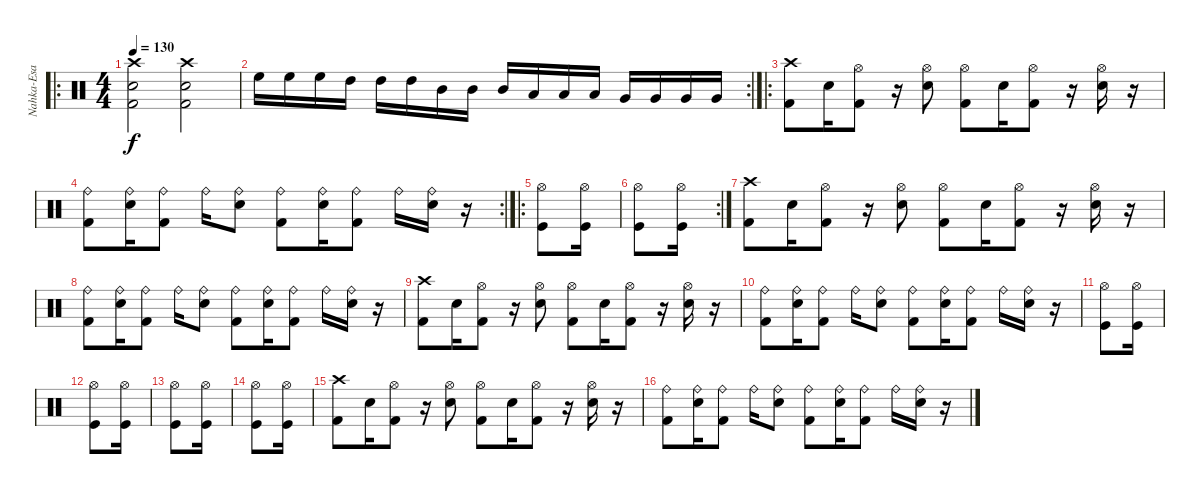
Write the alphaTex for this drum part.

\track ("Nahka-Esa" "Nahka-Esa") {instrument percussion}
\staff {score}
\articulation defaults
\ro
\ts (4 4)
\tempo 130
\clef neutral
\ks c
("Kick (hit) 2" "Snare (hit) 2" "Crash high (hit)").2{dy f} ("Kick (hit) 2" "Snare (hit) 2" "Crash high (hit)").2 |
\rc 2 "High Floor Tom (hit)".16 "High Floor Tom (hit)".16 "High Floor Tom (hit)".16 "High Tom (hit)".16 "High Tom (hit)".16 "High Tom (hit)".16 "Mid Tom (hit)".16 "Mid Tom (hit)".16 "Mid Tom (hit)".16 "Low Tom (hit)".16 "Low Tom (hit)".16 "Low Tom (hit)".16 "Very Low Tom (hit)".16 "Very Low Tom (hit)".16 "Very Low Tom (hit)".16 "Very Low Tom (hit)".16
|
\ro
("Crash high (hit)" "Kick (hit) 2").8 "Snare (hit) 2".16 ("Hi-Hat (open)" "Kick (hit) 2").8 r.16 ("Hi-Hat (open)" "Snare (hit) 2").8 ("Hi-Hat (open)" "Kick (hit) 2").8 "Snare (hit) 2".16 ("Hi-Hat (open)" "Kick (hit) 2").8 r.16 ("Hi-Hat (open)" "Snare (hit) 2").16 r.16 |
\rc 2
("Ride (bell)" "Kick (hit) 2").8 ("Ride (bell)" "Snare (hit) 2").16 ("Ride (bell)" "Kick (hit) 2").8 "Ride (bell)".16 ("Ride (bell)" "Snare (hit) 2").8 ("Ride (bell)" "Kick (hit) 2").8 ("Ride (bell)" "Snare (hit) 2").16 ("Ride (bell)" "Kick (hit) 2").8 "Ride (bell)".16 ("Ride (bell)" "Snare (hit) 2").16 r.16 |
\ro
("Hi-Hat (open)" "Kick (hit)").8 ("Hi-Hat (open)" "Kick (hit)").16 |
\rc 2
("Hi-Hat (open)" "Kick (hit)").8 ("Hi-Hat (open)" "Kick (hit)").16 |
("Crash high (hit)" "Kick (hit) 2").8 "Snare (hit) 2".16 ("Hi-Hat (open)" "Kick (hit) 2").8 r.16 ("Hi-Hat (open)" "Snare (hit) 2").8 ("Hi-Hat (open)" "Kick (hit) 2").8 "Snare (hit) 2".16 ("Hi-Hat (open)" "Kick (hit) 2").8 r.16 ("Hi-Hat (open)" "Snare (hit) 2").16 r.16 |
("Ride (bell)" "Kick (hit) 2").8 ("Ride (bell)" "Snare (hit) 2").16 ("Ride (bell)" "Kick (hit) 2").8 "Ride (bell)".16 ("Ride (bell)" "Snare (hit) 2").8 ("Ride (bell)" "Kick (hit) 2").8 ("Ride (bell)" "Snare (hit) 2").16 ("Ride (bell)" "Kick (hit) 2").8 "Ride (bell)".16 ("Ride (bell)" "Snare (hit) 2").16 r.16 |
("Crash high (hit)" "Kick (hit) 2").8 "Snare (hit) 2".16 ("Hi-Hat (open)" "Kick (hit) 2").8 r.16 ("Hi-Hat (open)" "Snare (hit) 2").8 ("Hi-Hat (open)" "Kick (hit) 2").8 "Snare (hit) 2".16 ("Hi-Hat (open)" "Kick (hit) 2").8 r.16 ("Hi-Hat (open)" "Snare (hit) 2").16 r.16 |
("Ride (bell)" "Kick (hit) 2").8 ("Ride (bell)" "Snare (hit) 2").16 ("Ride (bell)" "Kick (hit) 2").8 "Ride (bell)".16 ("Ride (bell)" "Snare (hit) 2").8 ("Ride (bell)" "Kick (hit) 2").8 ("Ride (bell)" "Snare (hit) 2").16 ("Ride (bell)" "Kick (hit) 2").8 "Ride (bell)".16 ("Ride (bell)" "Snare (hit) 2").16 r.16 |
("Hi-Hat (open)" "Kick (hit)").8 ("Hi-Hat (open)" "Kick (hit)").16 |
("Hi-Hat (open)" "Kick (hit)").8 ("Hi-Hat (open)" "Kick (hit)").16 |
("Hi-Hat (open)" "Kick (hit)").8 ("Hi-Hat (open)" "Kick (hit)").16 |
("Hi-Hat (open)" "Kick (hit)").8 ("Hi-Hat (open)" "Kick (hit)").16 |
("Crash high (hit)" "Kick (hit) 2").8 "Snare (hit) 2".16 ("Hi-Hat (open)" "Kick (hit) 2").8 r.16 ("Hi-Hat (open)" "Snare (hit) 2").8 ("Hi-Hat (open)" "Kick (hit) 2").8 "Snare (hit) 2".16 ("Hi-Hat (open)" "Kick (hit) 2").8 r.16 ("Hi-Hat (open)" "Snare (hit) 2").16 r.16 |
("Ride (bell)" "Kick (hit) 2").8 ("Ride (bell)" "Snare (hit) 2").16 ("Ride (bell)" "Kick (hit) 2").8 "Ride (bell)".16 ("Ride (bell)" "Snare (hit) 2").8 ("Ride (bell)" "Kick (hit) 2").8 ("Ride (bell)" "Snare (hit) 2").16 ("Ride (bell)" "Kick (hit) 2").8 "Ride (bell)".16 ("Ride (bell)" "Snare (hit) 2").16 r.16
